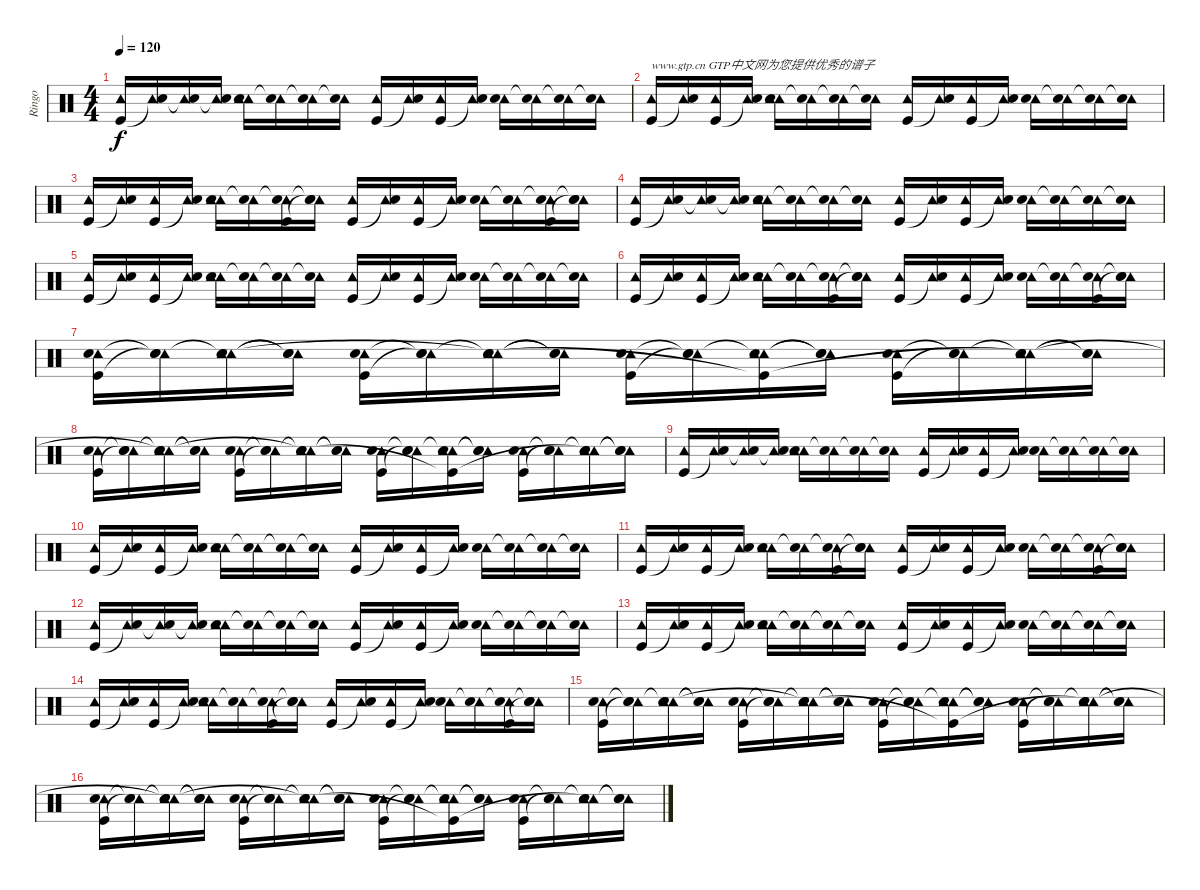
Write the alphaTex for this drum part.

\track ("Ringo" "Ringo") {instrument percussion}
\staff {score}
\articulation defaults
\ts (4 4)
\tempo 120
\clef neutral
\ks c
("Tambourine (hit)" "Kick (hit)").16{dy f} ("Tambourine (hit)" "Snare (hit)"{t}).16 ("Tambourine (hit)" "Snare (hit)"{t}).16 ("Tambourine (hit)" "Snare (hit)"{t}).16 ("Tambourine (hit)" "Tambourine (hit)" "Snare (hit) 2").16 ("Tambourine (hit)" "Snare (hit)"{t}).16 ("Tambourine (hit)" "Snare (hit)"{t}).16 ("Tambourine (hit)" "Snare (hit)"{t}).16 ("Tambourine (hit)" "Kick (hit)").16 ("Tambourine (hit)" "Snare (hit)"{t}).16 ("Tambourine (hit)" "Kick (hit)").16 ("Tambourine (hit)" "Snare (hit)"{t}).16 ("Tambourine (hit)" "Snare (hit) 2").16 ("Tambourine (hit)" "Snare (hit)"{t}).16 ("Tambourine (hit)" "Snare (hit)"{t}).16 ("Tambourine (hit)" "Snare (hit)"{t}).16 |
("Tambourine (hit)" "Kick (hit)").16{txt "www.gtp.cn GTP中文网为您提供优秀的谱子"} ("Tambourine (hit)" "Snare (hit)"{t}).16 ("Tambourine (hit)" "Kick (hit)").16 ("Tambourine (hit)" "Snare (hit)"{t}).16 ("Tambourine (hit)" "Tambourine (hit)" "Snare (hit) 2").16 ("Tambourine (hit)" "Snare (hit)"{t}).16 ("Tambourine (hit)" "Snare (hit)"{t}).16 ("Tambourine (hit)" "Snare (hit)"{t}).16 ("Tambourine (hit)" "Kick (hit)").16 ("Tambourine (hit)" "Snare (hit)"{t}).16 ("Tambourine (hit)" "Kick (hit)").16 ("Tambourine (hit)" "Snare (hit)"{t}).16 ("Tambourine (hit)" "Snare (hit) 2").16 ("Tambourine (hit)" "Snare (hit)"{t}).16 ("Tambourine (hit)" "Snare (hit)"{t}).16 ("Tambourine (hit)" "Snare (hit)"{t}).16 |
("Tambourine (hit)" "Kick (hit)").16 ("Tambourine (hit)" "Snare (hit)"{t}).16 ("Tambourine (hit)" "Kick (hit)").16 ("Tambourine (hit)" "Snare (hit)"{t}).16 ("Tambourine (hit)" "Tambourine (hit)" "Snare (hit) 2").16 ("Tambourine (hit)" "Snare (hit)"{t}).16 ("Tambourine (hit)" "Snare (hit)"{t} "Kick (hit)").16 ("Tambourine (hit)" "Snare (hit)"{t} "Snare (hit)"{t}).16 ("Tambourine (hit)" "Kick (hit)").16 ("Tambourine (hit)" "Snare (hit)"{t}).16 ("Tambourine (hit)" "Kick (hit)").16 ("Tambourine (hit)" "Snare (hit)"{t}).16 ("Tambourine (hit)" "Snare (hit) 2").16 ("Tambourine (hit)" "Snare (hit)"{t}).16 ("Tambourine (hit)" "Snare (hit)"{t} "Kick (hit)").16 ("Tambourine (hit)" "Snare (hit)"{t} "Snare (hit)"{t}).16 |
("Tambourine (hit)" "Kick (hit)").16 ("Tambourine (hit)" "Snare (hit)"{t}).16 ("Tambourine (hit)" "Snare (hit)"{t}).16 ("Tambourine (hit)" "Snare (hit)"{t}).16 ("Tambourine (hit)" "Tambourine (hit)" "Snare (hit) 2").16 ("Tambourine (hit)" "Snare (hit)"{t}).16 ("Tambourine (hit)" "Snare (hit)"{t}).16 ("Tambourine (hit)" "Snare (hit)"{t}).16 ("Tambourine (hit)" "Kick (hit)").16 ("Tambourine (hit)" "Snare (hit)"{t}).16 ("Tambourine (hit)" "Kick (hit)").16 ("Tambourine (hit)" "Snare (hit)"{t}).16 ("Tambourine (hit)" "Snare (hit) 2").16 ("Tambourine (hit)" "Snare (hit)"{t}).16 ("Tambourine (hit)" "Snare (hit)"{t}).16 ("Tambourine (hit)" "Snare (hit)"{t}).16 |
("Tambourine (hit)" "Kick (hit)").16 ("Tambourine (hit)" "Snare (hit)"{t}).16 ("Tambourine (hit)" "Kick (hit)").16 ("Tambourine (hit)" "Snare (hit)"{t}).16 ("Tambourine (hit)" "Tambourine (hit)" "Snare (hit) 2").16 ("Tambourine (hit)" "Snare (hit)"{t}).16 ("Tambourine (hit)" "Snare (hit)"{t}).16 ("Tambourine (hit)" "Snare (hit)"{t}).16 ("Tambourine (hit)" "Kick (hit)").16 ("Tambourine (hit)" "Snare (hit)"{t}).16 ("Tambourine (hit)" "Kick (hit)").16 ("Tambourine (hit)" "Snare (hit)"{t}).16 ("Tambourine (hit)" "Snare (hit) 2").16 ("Tambourine (hit)" "Snare (hit)"{t}).16 ("Tambourine (hit)" "Snare (hit)"{t}).16 ("Tambourine (hit)" "Snare (hit)"{t}).16 |
("Tambourine (hit)" "Kick (hit)").16 ("Tambourine (hit)" "Snare (hit)"{t}).16 ("Tambourine (hit)" "Kick (hit)").16 ("Tambourine (hit)" "Snare (hit)"{t}).16 ("Tambourine (hit)" "Tambourine (hit)" "Snare (hit) 2").16 ("Tambourine (hit)" "Snare (hit)"{t}).16 ("Tambourine (hit)" "Snare (hit)"{t} "Kick (hit)").16 ("Tambourine (hit)" "Snare (hit)"{t} "Snare (hit)"{t}).16 ("Tambourine (hit)" "Kick (hit)").16 ("Tambourine (hit)" "Snare (hit)"{t}).16 ("Tambourine (hit)" "Kick (hit)").16 ("Tambourine (hit)" "Snare (hit)"{t}).16 ("Tambourine (hit)" "Snare (hit) 2").16 ("Tambourine (hit)" "Snare (hit)"{t}).16 ("Tambourine (hit)" "Snare (hit)"{t} "Kick (hit)").16 ("Tambourine (hit)" "Snare (hit)"{t} "Snare (hit)"{t}).16 |
("Tambourine (hit)" "Snare (hit) 2" "Kick (hit)").16 ("Tambourine (hit)" "Snare (hit)"{t} "Snare (hit)"{t}).16 ("Tambourine (hit)" "Tambourine (hit)" "Snare (hit)"{t} "Snare (hit)").16 ("Tambourine (hit)" "Snare (hit)"{t} "Snare (hit)"{t}).16 ("Tambourine (hit)" "Snare (hit) 2" "Kick (hit)").16 ("Tambourine (hit)" "Snare (hit)"{t} "Snare (hit)"{t}).16 ("Tambourine (hit)" "Tambourine (hit)" "Snare (hit)"{t} "Snare (hit)"{t}).16 ("Tambourine (hit)" "Snare (hit)"{t} "Snare (hit)"{t}).16 ("Tambourine (hit)" "Snare (hit) 2" "Kick (hit)").16 ("Tambourine (hit)" "Snare (hit)"{t} "Snare (hit)"{t}).16 ("Tambourine (hit)" "Tambourine (hit)" "Snare (hit)"{t} "Kick (hit)"{t}).16 ("Tambourine (hit)" "Snare (hit)"{t} "Snare (hit)"{t}).16 ("Tambourine (hit)" "Snare (hit) 2" "Kick (hit)").16 ("Tambourine (hit)" "Snare (hit)"{t} "Snare (hit)"{t}).16 ("Tambourine (hit)" "Tambourine (hit)" "Snare (hit)"{t} "Snare (hit)"{t}).16 ("Tambourine (hit)" "Snare (hit)"{t} "Snare (hit)"{t}).16 |
("Tambourine (hit)" "Snare (hit) 2" "Kick (hit)").16 ("Tambourine (hit)" "Snare (hit)"{t} "Snare (hit)"{t}).16 ("Tambourine (hit)" "Tambourine (hit)" "Snare (hit)"{t} "Snare (hit)"{t}).16 ("Tambourine (hit)" "Snare (hit)"{t} "Snare (hit)"{t}).16 ("Tambourine (hit)" "Snare (hit) 2" "Kick (hit)").16 ("Tambourine (hit)" "Snare (hit)"{t} "Snare (hit)"{t}).16 ("Tambourine (hit)" "Tambourine (hit)" "Snare (hit)"{t} "Snare (hit)"{t}).16 ("Tambourine (hit)" "Snare (hit)"{t} "Snare (hit)"{t}).16 ("Tambourine (hit)" "Snare (hit) 2" "Kick (hit)").16 ("Tambourine (hit)" "Snare (hit)"{t} "Snare (hit)"{t}).16 ("Tambourine (hit)" "Tambourine (hit)" "Snare (hit)"{t} "Kick (hit)"{t}).16 ("Tambourine (hit)" "Snare (hit)"{t} "Snare (hit)"{t}).16 ("Tambourine (hit)" "Snare (hit) 2" "Kick (hit)").16 ("Tambourine (hit)" "Snare (hit)"{t} "Snare (hit)"{t}).16 ("Tambourine (hit)" "Tambourine (hit)" "Snare (hit)"{t} "Snare (hit)"{t}).16 ("Tambourine (hit)" "Snare (hit)"{t} "Snare (hit)"{t}).16 |
("Tambourine (hit)" "Kick (hit)").16 ("Tambourine (hit)" "Snare (hit)"{t}).16 ("Tambourine (hit)" "Snare (hit)"{t}).16 ("Tambourine (hit)" "Snare (hit)"{t}).16 ("Tambourine (hit)" "Tambourine (hit)" "Snare (hit) 2").16 ("Tambourine (hit)" "Snare (hit)"{t}).16 ("Tambourine (hit)" "Snare (hit)"{t}).16 ("Tambourine (hit)" "Snare (hit)"{t}).16 ("Tambourine (hit)" "Kick (hit)").16 ("Tambourine (hit)" "Snare (hit)"{t}).16 ("Tambourine (hit)" "Kick (hit)").16 ("Tambourine (hit)" "Snare (hit)"{t}).16 ("Tambourine (hit)" "Snare (hit) 2").16 ("Tambourine (hit)" "Snare (hit)"{t}).16 ("Tambourine (hit)" "Snare (hit)"{t}).16 ("Tambourine (hit)" "Snare (hit)"{t}).16 |
("Tambourine (hit)" "Kick (hit)").16 ("Tambourine (hit)" "Snare (hit)"{t}).16 ("Tambourine (hit)" "Kick (hit)").16 ("Tambourine (hit)" "Snare (hit)"{t}).16 ("Tambourine (hit)" "Tambourine (hit)" "Snare (hit) 2").16 ("Tambourine (hit)" "Snare (hit)"{t}).16 ("Tambourine (hit)" "Snare (hit)"{t}).16 ("Tambourine (hit)" "Snare (hit)"{t}).16 ("Tambourine (hit)" "Kick (hit)").16 ("Tambourine (hit)" "Snare (hit)"{t}).16 ("Tambourine (hit)" "Kick (hit)").16 ("Tambourine (hit)" "Snare (hit)"{t}).16 ("Tambourine (hit)" "Snare (hit) 2").16 ("Tambourine (hit)" "Snare (hit)"{t}).16 ("Tambourine (hit)" "Snare (hit)"{t}).16 ("Tambourine (hit)" "Snare (hit)"{t}).16 |
("Tambourine (hit)" "Kick (hit)").16 ("Tambourine (hit)" "Snare (hit)"{t}).16 ("Tambourine (hit)" "Kick (hit)").16 ("Tambourine (hit)" "Snare (hit)"{t}).16 ("Tambourine (hit)" "Tambourine (hit)" "Snare (hit) 2").16 ("Tambourine (hit)" "Snare (hit)"{t}).16 ("Tambourine (hit)" "Snare (hit)"{t} "Kick (hit)").16 ("Tambourine (hit)" "Snare (hit)"{t} "Snare (hit)"{t}).16 ("Tambourine (hit)" "Kick (hit)").16 ("Tambourine (hit)" "Snare (hit)"{t}).16 ("Tambourine (hit)" "Kick (hit)").16 ("Tambourine (hit)" "Snare (hit)"{t}).16 ("Tambourine (hit)" "Snare (hit) 2").16 ("Tambourine (hit)" "Snare (hit)"{t}).16 ("Tambourine (hit)" "Snare (hit)"{t} "Kick (hit)").16 ("Tambourine (hit)" "Snare (hit)"{t} "Snare (hit)"{t}).16 |
("Tambourine (hit)" "Kick (hit)").16 ("Tambourine (hit)" "Snare (hit)"{t}).16 ("Tambourine (hit)" "Snare (hit)"{t}).16 ("Tambourine (hit)" "Snare (hit)"{t}).16 ("Tambourine (hit)" "Tambourine (hit)" "Snare (hit) 2").16 ("Tambourine (hit)" "Snare (hit)"{t}).16 ("Tambourine (hit)" "Snare (hit)"{t}).16 ("Tambourine (hit)" "Snare (hit)"{t}).16 ("Tambourine (hit)" "Kick (hit)").16 ("Tambourine (hit)" "Snare (hit)"{t}).16 ("Tambourine (hit)" "Kick (hit)").16 ("Tambourine (hit)" "Snare (hit)"{t}).16 ("Tambourine (hit)" "Snare (hit) 2").16 ("Tambourine (hit)" "Snare (hit)"{t}).16 ("Tambourine (hit)" "Snare (hit)"{t}).16 ("Tambourine (hit)" "Snare (hit)"{t}).16 |
("Tambourine (hit)" "Kick (hit)").16 ("Tambourine (hit)" "Snare (hit)"{t}).16 ("Tambourine (hit)" "Kick (hit)").16 ("Tambourine (hit)" "Snare (hit)"{t}).16 ("Tambourine (hit)" "Tambourine (hit)" "Snare (hit) 2").16 ("Tambourine (hit)" "Snare (hit)"{t}).16 ("Tambourine (hit)" "Snare (hit)"{t}).16 ("Tambourine (hit)" "Snare (hit)"{t}).16 ("Tambourine (hit)" "Kick (hit)").16 ("Tambourine (hit)" "Snare (hit)"{t}).16 ("Tambourine (hit)" "Kick (hit)").16 ("Tambourine (hit)" "Snare (hit)"{t}).16 ("Tambourine (hit)" "Snare (hit) 2").16 ("Tambourine (hit)" "Snare (hit)"{t}).16 ("Tambourine (hit)" "Snare (hit)"{t}).16 ("Tambourine (hit)" "Snare (hit)"{t}).16 |
("Tambourine (hit)" "Kick (hit)").16 ("Tambourine (hit)" "Snare (hit)"{t}).16 ("Tambourine (hit)" "Kick (hit)").16 ("Tambourine (hit)" "Snare (hit)"{t}).16 ("Tambourine (hit)" "Tambourine (hit)" "Snare (hit) 2").16 ("Tambourine (hit)" "Snare (hit)"{t}).16 ("Tambourine (hit)" "Snare (hit)"{t} "Kick (hit)").16 ("Tambourine (hit)" "Snare (hit)"{t} "Snare (hit)"{t}).16 ("Tambourine (hit)" "Kick (hit)").16 ("Tambourine (hit)" "Snare (hit)"{t}).16 ("Tambourine (hit)" "Kick (hit)").16 ("Tambourine (hit)" "Snare (hit)"{t}).16 ("Tambourine (hit)" "Snare (hit) 2").16 ("Tambourine (hit)" "Snare (hit)"{t}).16 ("Tambourine (hit)" "Snare (hit)"{t} "Kick (hit)").16 ("Tambourine (hit)" "Snare (hit)"{t} "Snare (hit)"{t}).16 |
("Tambourine (hit)" "Snare (hit) 2" "Kick (hit)").16 ("Tambourine (hit)" "Snare (hit)"{t} "Snare (hit)"{t}).16 ("Tambourine (hit)" "Tambourine (hit)" "Snare (hit)"{t} "Snare (hit)").16 ("Tambourine (hit)" "Snare (hit)"{t} "Snare (hit)"{t}).16 ("Tambourine (hit)" "Snare (hit) 2" "Kick (hit)").16 ("Tambourine (hit)" "Snare (hit)"{t} "Snare (hit)"{t}).16 ("Tambourine (hit)" "Tambourine (hit)" "Snare (hit)"{t} "Snare (hit)"{t}).16 ("Tambourine (hit)" "Snare (hit)"{t} "Snare (hit)"{t}).16 ("Tambourine (hit)" "Snare (hit) 2" "Kick (hit)").16 ("Tambourine (hit)" "Snare (hit)"{t} "Snare (hit)"{t}).16 ("Tambourine (hit)" "Tambourine (hit)" "Snare (hit)"{t} "Kick (hit)"{t}).16 ("Tambourine (hit)" "Snare (hit)"{t} "Snare (hit)"{t}).16 ("Tambourine (hit)" "Snare (hit) 2" "Kick (hit)").16 ("Tambourine (hit)" "Snare (hit)"{t} "Snare (hit)"{t}).16 ("Tambourine (hit)" "Tambourine (hit)" "Snare (hit)"{t} "Snare (hit)"{t}).16 ("Tambourine (hit)" "Snare (hit)"{t} "Snare (hit)"{t}).16 |
("Tambourine (hit)" "Snare (hit) 2" "Kick (hit)").16 ("Tambourine (hit)" "Snare (hit)"{t} "Snare (hit)"{t}).16 ("Tambourine (hit)" "Tambourine (hit)" "Snare (hit)"{t} "Snare (hit)"{t}).16 ("Tambourine (hit)" "Snare (hit)"{t} "Snare (hit)"{t}).16 ("Tambourine (hit)" "Snare (hit) 2" "Kick (hit)").16 ("Tambourine (hit)" "Snare (hit)"{t} "Snare (hit)"{t}).16 ("Tambourine (hit)" "Tambourine (hit)" "Snare (hit)"{t} "Snare (hit)"{t}).16 ("Tambourine (hit)" "Snare (hit)"{t} "Snare (hit)"{t}).16 ("Tambourine (hit)" "Snare (hit) 2" "Kick (hit)").16 ("Tambourine (hit)" "Snare (hit)"{t} "Snare (hit)"{t}).16 ("Tambourine (hit)" "Tambourine (hit)" "Snare (hit)"{t} "Kick (hit)"{t}).16 ("Tambourine (hit)" "Snare (hit)"{t} "Snare (hit)"{t}).16 ("Tambourine (hit)" "Snare (hit) 2" "Kick (hit)").16 ("Tambourine (hit)" "Snare (hit)"{t} "Snare (hit)"{t}).16 ("Tambourine (hit)" "Tambourine (hit)" "Snare (hit)"{t} "Snare (hit)"{t}).16 ("Tambourine (hit)" "Snare (hit)"{t} "Snare (hit)"{t}).16
